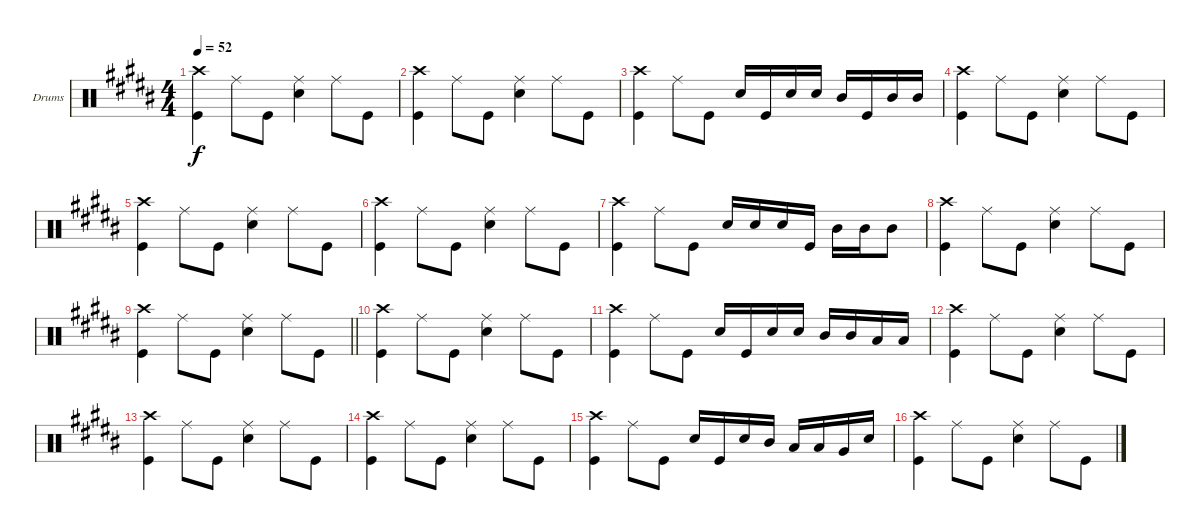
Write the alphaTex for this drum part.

\bracketExtendMode groupsimilarinstruments
\firstSystemTrackNameOrientation horizontal
\otherSystemsTrackNameOrientation horizontal
\track ("Drumkit" "Drums") {solo instrument percussion}
\staff {score}
\articulation defaults
\ts (4 4)
\tempo 52
\clef neutral
\ks g#minor
("Crash high (hit)" "Kick (hit)").4{dy f} "Ride (middle)".8 "Kick (hit)".8 ("Ride (middle)" "Snare (hit) 2").4 "Ride (middle)".8 "Kick (hit)".8 |
("Crash high (hit)" "Kick (hit)").4 "Ride (middle)".8 "Kick (hit)".8 ("Ride (middle)" "Snare (hit) 2").4 "Ride (middle)".8 "Kick (hit)".8 |
("Crash high (hit)" "Kick (hit)").4 "Ride (middle)".8 "Kick (hit)".8 "Snare (hit) 2".16 "Kick (hit)".16 "Snare (hit) 2".16 "Snare (hit) 2".16 "Mid Tom (hit)".16 "Kick (hit)".16 "Mid Tom (hit)".16 "Mid Tom (hit)".16 |
("Crash high (hit)" "Kick (hit)").4 "Ride (middle)".8 "Kick (hit)".8 ("Ride (middle)" "Snare (hit) 2").4 "Ride (middle)".8 "Kick (hit)".8 |
("Crash high (hit)" "Kick (hit)").4 "Ride (middle)".8 "Kick (hit)".8 ("Ride (middle)" "Snare (hit) 2").4 "Ride (middle)".8 "Kick (hit)".8 |
("Crash high (hit)" "Kick (hit)").4 "Ride (middle)".8 "Kick (hit)".8 ("Ride (middle)" "Snare (hit) 2").4 "Ride (middle)".8 "Kick (hit)".8 |
("Crash high (hit)" "Kick (hit)").4 "Ride (middle)".8 "Kick (hit)".8 "Snare (hit) 2".16 "Snare (hit) 2".16 "Snare (hit) 2".16 "Kick (hit)".16 "Mid Tom (hit)".16 "Mid Tom (hit)".16 "Mid Tom (hit)".8 |
("Crash high (hit)" "Kick (hit)").4 "Ride (middle)".8 "Kick (hit)".8 ("Ride (middle)" "Snare (hit) 2").4 "Ride (middle)".8 "Kick (hit)".8 |
\barLineRight lightlight
("Crash high (hit)" "Kick (hit)").4 "Ride (middle)".8 "Kick (hit)".8 ("Ride (middle)" "Snare (hit) 2").4 "Ride (middle)".8 "Kick (hit)".8 |
("Crash high (hit)" "Kick (hit)").4 "Ride (middle)".8 "Kick (hit)".8 ("Ride (middle)" "Snare (hit) 2").4 "Ride (middle)".8 "Kick (hit)".8 |
("Crash high (hit)" "Kick (hit)").4 "Ride (middle)".8 "Kick (hit)".8 "Snare (hit) 2".16 "Kick (hit)".16 "Snare (hit) 2".16 "Snare (hit) 2".16 "Mid Tom (hit)".16 "Mid Tom (hit)".16 "Low Tom (hit)".16 "Low Tom (hit)".16 |
("Crash high (hit)" "Kick (hit)").4 "Ride (middle)".8 "Kick (hit)".8 ("Ride (middle)" "Snare (hit) 2").4 "Ride (middle)".8 "Kick (hit)".8 |
("Crash high (hit)" "Kick (hit)").4 "Ride (middle)".8 "Kick (hit)".8 ("Ride (middle)" "Snare (hit) 2").4 "Ride (middle)".8 "Kick (hit)".8 |
("Crash high (hit)" "Kick (hit)").4 "Ride (middle)".8 "Kick (hit)".8 ("Ride (middle)" "Snare (hit) 2").4 "Ride (middle)".8 "Kick (hit)".8 |
("Crash high (hit)" "Kick (hit)").4 "Ride (middle)".8 "Kick (hit)".8 "Snare (hit) 2".16 "Kick (hit)".16 "Snare (hit) 2".16 "Mid Tom (hit)".16 "Low Tom (hit)".16 "Low Tom (hit)".16 "Very Low Tom (hit)".16 "Snare (hit) 2".16 |
("Crash high (hit)" "Kick (hit)").4 "Ride (middle)".8 "Kick (hit)".8 ("Ride (middle)" "Snare (hit) 2").4 "Ride (middle)".8 "Kick (hit)".8
